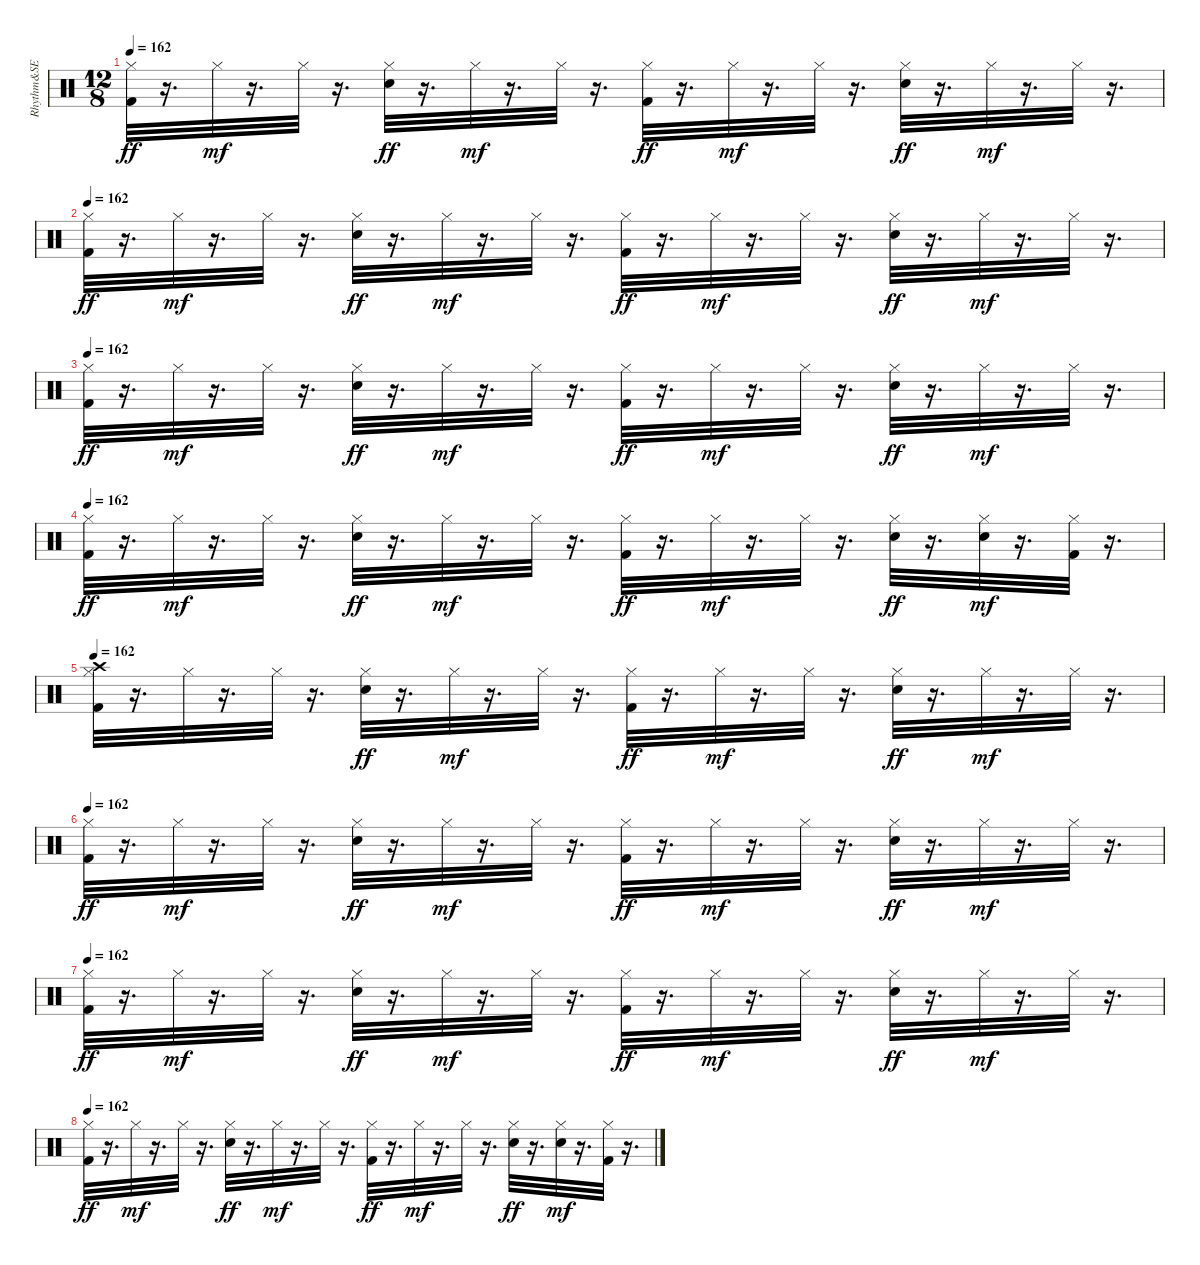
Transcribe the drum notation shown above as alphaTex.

\track ("Rhythm&SE" "Rhythm&SE") {instrument percussion}
\staff {score}
\articulation defaults
\ts (12 8)
\tempo 162
\clef neutral
\ks c
("Kick (hit) 2" "Hi-Hat (closed)").32{dy ff} r.16{d} "Hi-Hat (closed)".32{dy mf} r.16{d} "Hi-Hat (closed)".32{volume 14} r.16{d} ("Snare (hit) 2" "Hi-Hat (closed)").32{dy ff} r.16{d} "Hi-Hat (closed)".32{dy mf} r.16{d} "Hi-Hat (closed)".32 r.16{d} ("Kick (hit) 2" "Hi-Hat (closed)").32{dy ff} r.16{d} "Hi-Hat (closed)".32{dy mf} r.16{d} "Hi-Hat (closed)".32 r.16{d} ("Snare (hit) 2" "Hi-Hat (closed)").32{dy ff} r.16{d} "Hi-Hat (closed)".32{dy mf} r.16{d} "Hi-Hat (closed)".32 r.16{d} |
\tempo 162
("Kick (hit) 2" "Hi-Hat (closed)").32{dy ff volume 14 balance 8} r.16{d} "Hi-Hat (closed)".32{dy mf} r.16{d} "Hi-Hat (closed)".32{volume 14} r.16{d} ("Snare (hit) 2" "Hi-Hat (closed)").32{dy ff} r.16{d} "Hi-Hat (closed)".32{dy mf} r.16{d} "Hi-Hat (closed)".32 r.16{d} ("Kick (hit) 2" "Hi-Hat (closed)").32{dy ff} r.16{d} "Hi-Hat (closed)".32{dy mf} r.16{d} "Hi-Hat (closed)".32 r.16{d} ("Snare (hit) 2" "Hi-Hat (closed)").32{dy ff} r.16{d} "Hi-Hat (closed)".32{dy mf} r.16{d} "Hi-Hat (closed)".32 r.16{d} |
\tempo 162
("Kick (hit) 2" "Hi-Hat (closed)").32{dy ff volume 14 balance 8} r.16{d} "Hi-Hat (closed)".32{dy mf} r.16{d} "Hi-Hat (closed)".32{volume 14} r.16{d} ("Snare (hit) 2" "Hi-Hat (closed)").32{dy ff} r.16{d} "Hi-Hat (closed)".32{dy mf} r.16{d} "Hi-Hat (closed)".32 r.16{d} ("Kick (hit) 2" "Hi-Hat (closed)").32{dy ff} r.16{d} "Hi-Hat (closed)".32{dy mf} r.16{d} "Hi-Hat (closed)".32 r.16{d} ("Snare (hit) 2" "Hi-Hat (closed)").32{dy ff} r.16{d} "Hi-Hat (closed)".32{dy mf} r.16{d} "Hi-Hat (closed)".32 r.16{d} |
\tempo 162
("Kick (hit) 2" "Hi-Hat (closed)").32{dy ff volume 14 balance 8} r.16{d} "Hi-Hat (closed)".32{dy mf} r.16{d} "Hi-Hat (closed)".32{volume 14} r.16{d} ("Snare (hit) 2" "Hi-Hat (closed)").32{dy ff} r.16{d} "Hi-Hat (closed)".32{dy mf} r.16{d} "Hi-Hat (closed)".32 r.16{d} ("Kick (hit) 2" "Hi-Hat (closed)").32{dy ff} r.16{d} "Hi-Hat (closed)".32{dy mf} r.16{d} "Hi-Hat (closed)".32 r.16{d} ("Snare (hit) 2" "Hi-Hat (closed)").32{dy ff} r.16{d} ("Snare (hit) 2" "Hi-Hat (closed)").32{dy mf} r.16{d} ("Kick (hit) 2" "Hi-Hat (closed)").32 r.16{d} |
\tempo 162
("Kick (hit) 2" "Hi-Hat (closed)" "Crash high (hit)").32{volume 14 balance 8} r.16{d} "Hi-Hat (closed)".32 r.16{d} "Hi-Hat (closed)".32{volume 14} r.16{d} ("Snare (hit) 2" "Hi-Hat (closed)").32{dy ff} r.16{d} "Hi-Hat (closed)".32{dy mf} r.16{d} "Hi-Hat (closed)".32 r.16{d} ("Kick (hit) 2" "Hi-Hat (closed)").32{dy ff} r.16{d} "Hi-Hat (closed)".32{dy mf} r.16{d} "Hi-Hat (closed)".32 r.16{d} ("Snare (hit) 2" "Hi-Hat (closed)").32{dy ff} r.16{d} "Hi-Hat (closed)".32{dy mf} r.16{d} "Hi-Hat (closed)".32 r.16{d} |
\tempo 162
("Kick (hit) 2" "Hi-Hat (closed)").32{dy ff volume 14 balance 8} r.16{d} "Hi-Hat (closed)".32{dy mf} r.16{d} "Hi-Hat (closed)".32{volume 14} r.16{d} ("Snare (hit) 2" "Hi-Hat (closed)").32{dy ff} r.16{d} "Hi-Hat (closed)".32{dy mf} r.16{d} "Hi-Hat (closed)".32 r.16{d} ("Kick (hit) 2" "Hi-Hat (closed)").32{dy ff} r.16{d} "Hi-Hat (closed)".32{dy mf} r.16{d} "Hi-Hat (closed)".32 r.16{d} ("Snare (hit) 2" "Hi-Hat (closed)").32{dy ff} r.16{d} "Hi-Hat (closed)".32{dy mf} r.16{d} "Hi-Hat (closed)".32 r.16{d} |
\tempo 162
("Kick (hit) 2" "Hi-Hat (closed)").32{dy ff volume 14 balance 8} r.16{d} "Hi-Hat (closed)".32{dy mf} r.16{d} "Hi-Hat (closed)".32{volume 14} r.16{d} ("Snare (hit) 2" "Hi-Hat (closed)").32{dy ff} r.16{d} "Hi-Hat (closed)".32{dy mf} r.16{d} "Hi-Hat (closed)".32 r.16{d} ("Kick (hit) 2" "Hi-Hat (closed)").32{dy ff} r.16{d} "Hi-Hat (closed)".32{dy mf} r.16{d} "Hi-Hat (closed)".32 r.16{d} ("Snare (hit) 2" "Hi-Hat (closed)").32{dy ff} r.16{d} "Hi-Hat (closed)".32{dy mf} r.16{d} "Hi-Hat (closed)".32 r.16{d} |
\tempo 162
("Kick (hit) 2" "Hi-Hat (closed)").32{dy ff volume 14 balance 8} r.16{d} "Hi-Hat (closed)".32{dy mf} r.16{d} "Hi-Hat (closed)".32{volume 14} r.16{d} ("Snare (hit) 2" "Hi-Hat (closed)").32{dy ff} r.16{d} "Hi-Hat (closed)".32{dy mf} r.16{d} "Hi-Hat (closed)".32 r.16{d} ("Kick (hit) 2" "Hi-Hat (closed)").32{dy ff} r.16{d} "Hi-Hat (closed)".32{dy mf} r.16{d} "Hi-Hat (closed)".32 r.16{d} ("Snare (hit) 2" "Hi-Hat (closed)").32{dy ff} r.16{d} ("Snare (hit) 2" "Hi-Hat (closed)").32{dy mf} r.16{d} ("Kick (hit) 2" "Hi-Hat (closed)").32 r.16{d}
